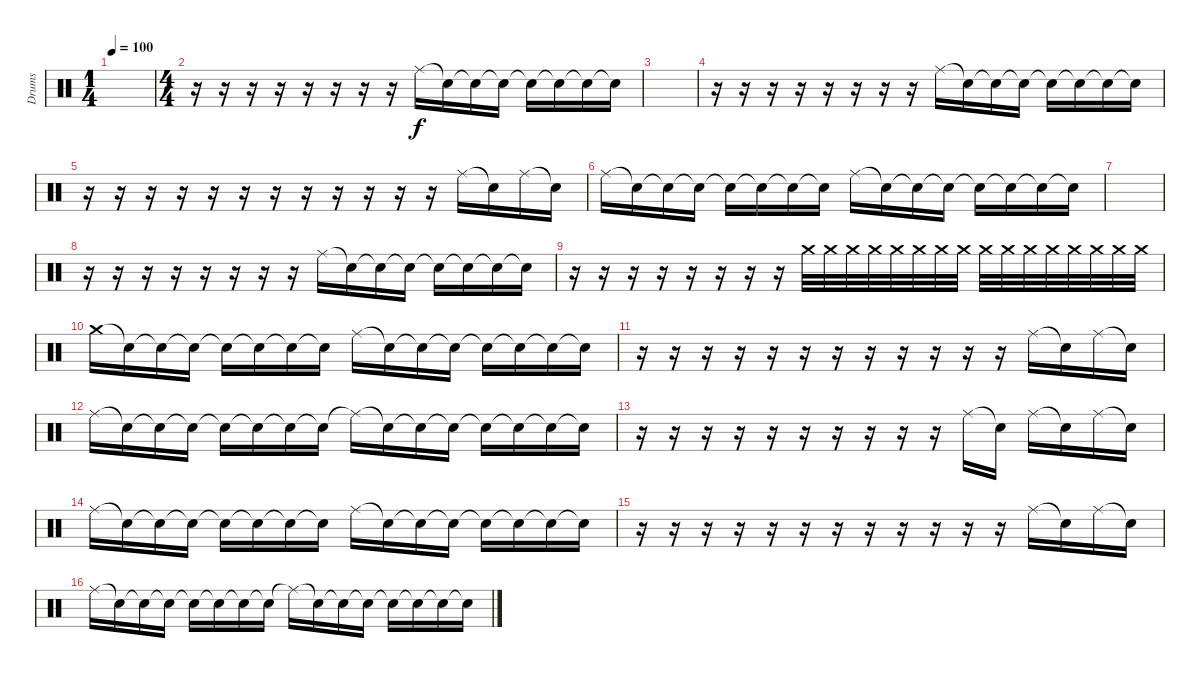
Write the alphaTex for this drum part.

\track ("Drums" "Drums") {instrument percussion}
\staff {score}
\articulation defaults
\ts (1 4)
\tempo 100
\clef neutral
\ks c
|
\ts (4 4)
r.16 r.16 r.16 r.16 r.16 r.16 r.16 r.16 "Ride (middle)".16 "Snare (hit)"{t}.16 "Snare (hit)"{t}.16 "Snare (hit)"{t}.16 "Snare (hit)"{t}.16 "Snare (hit)"{t}.16 "Snare (hit)"{t}.16 "Snare (hit)"{t}.16 |
|
r.16 r.16 r.16 r.16 r.16 r.16 r.16 r.16 "Ride (middle)".16 "Snare (hit)"{t}.16 "Snare (hit)"{t}.16 "Snare (hit)"{t}.16 "Snare (hit)"{t}.16 "Snare (hit)"{t}.16 "Snare (hit)"{t}.16 "Snare (hit)"{t}.16 |
r.16 r.16 r.16 r.16 r.16 r.16 r.16 r.16 r.16 r.16 r.16 r.16 "Ride (middle)".16 "Snare (hit)"{t}.16 "Ride (middle)".16 "Snare (hit)"{t}.16 |
"Ride (middle)".16 "Snare (hit)"{t}.16 "Snare (hit)"{t}.16 "Snare (hit)"{t}.16 "Snare (hit)"{t}.16 "Snare (hit)"{t}.16 "Snare (hit)"{t}.16 "Snare (hit)"{t}.16 "Ride (middle)".16 "Snare (hit)"{t}.16 "Snare (hit)"{t}.16 "Snare (hit)"{t}.16 "Snare (hit)"{t}.16 "Snare (hit)"{t}.16 "Snare (hit)"{t}.16 "Snare (hit)"{t}.16 |
|
r.16 r.16 r.16 r.16 r.16 r.16 r.16 r.16 "Ride (middle)".16 "Snare (hit)"{t}.16 "Snare (hit)"{t}.16 "Snare (hit)"{t}.16 "Snare (hit)"{t}.16 "Snare (hit)"{t}.16 "Snare (hit)"{t}.16 "Snare (hit)"{t}.16 |
r.16{volume 0} r.16 r.16 r.16 r.16 r.16 r.16 r.16 "Crash medium (hit)".32{volume 12} "Crash medium (hit)".32 "Crash medium (hit)".32 "Crash medium (hit)".32 "Crash medium (hit)".32 "Crash medium (hit)".32 "Crash medium (hit)".32 "Crash medium (hit)".32 "Crash medium (hit)".32 "Crash medium (hit)".32 "Crash medium (hit)".32 "Crash medium (hit)".32 "Crash medium (hit)".32 "Crash medium (hit)".32 "Crash medium (hit)".32 "Crash medium (hit)".32 |
"Crash medium (hit)".16 "Snare (hit)"{t}.16 "Snare (hit)"{t}.16 "Snare (hit)"{t}.16 "Snare (hit)"{t}.16 "Snare (hit)"{t}.16 "Snare (hit)"{t}.16 "Snare (hit)"{t}.16 "Ride (middle)".16 "Snare (hit)"{t}.16 "Snare (hit)"{t}.16 "Snare (hit)"{t}.16 "Snare (hit)"{t}.16 "Snare (hit)"{t}.16 "Snare (hit)"{t}.16 "Snare (hit)"{t}.16 |
r.16 r.16 r.16 r.16 r.16 r.16 r.16 r.16 r.16 r.16 r.16 r.16 "Ride (middle)".16 "Snare (hit)"{t}.16 "Ride (middle)".16 "Snare (hit)"{t}.16 |
"Ride (middle)".16 "Snare (hit)"{t}.16 "Snare (hit)"{t}.16 "Snare (hit)"{t}.16 "Snare (hit)"{t}.16 "Snare (hit)"{t}.16 "Snare (hit)"{t}.16 "Snare (hit)"{t}.16 "Ride (middle)"{t}.16 "Snare (hit)"{t}.16 "Snare (hit)"{t}.16 "Snare (hit)"{t}.16 "Snare (hit)"{t}.16 "Snare (hit)"{t}.16 "Snare (hit)"{t}.16 "Snare (hit)"{t}.16 |
r.16 r.16 r.16 r.16 r.16 r.16 r.16 r.16 r.16 r.16 "Ride (middle)".16 "Snare (hit)"{t}.16 "Ride (middle)".16 "Snare (hit)"{t}.16 "Ride (middle)".16 "Snare (hit)"{t}.16 |
"Ride (middle)".16 "Snare (hit)"{t}.16 "Snare (hit)"{t}.16 "Snare (hit)"{t}.16 "Snare (hit)"{t}.16 "Snare (hit)"{t}.16 "Snare (hit)"{t}.16 "Snare (hit)"{t}.16 "Ride (middle)".16 "Snare (hit)"{t}.16 "Snare (hit)"{t}.16 "Snare (hit)"{t}.16 "Snare (hit)"{t}.16 "Snare (hit)"{t}.16 "Snare (hit)"{t}.16 "Snare (hit)"{t}.16 |
r.16 r.16 r.16 r.16 r.16 r.16 r.16 r.16 r.16 r.16 r.16 r.16 "Ride (middle)".16 "Snare (hit)"{t}.16 "Ride (middle)".16 "Snare (hit)"{t}.16 |
"Ride (middle)".16 "Snare (hit)"{t}.16 "Snare (hit)"{t}.16 "Snare (hit)"{t}.16 "Snare (hit)"{t}.16 "Snare (hit)"{t}.16 "Snare (hit)"{t}.16 "Snare (hit)"{t}.16 "Ride (middle)"{t}.16 "Snare (hit)"{t}.16 "Snare (hit)"{t}.16 "Snare (hit)"{t}.16 "Snare (hit)"{t}.16 "Snare (hit)"{t}.16 "Snare (hit)"{t}.16 "Snare (hit)"{t}.16
